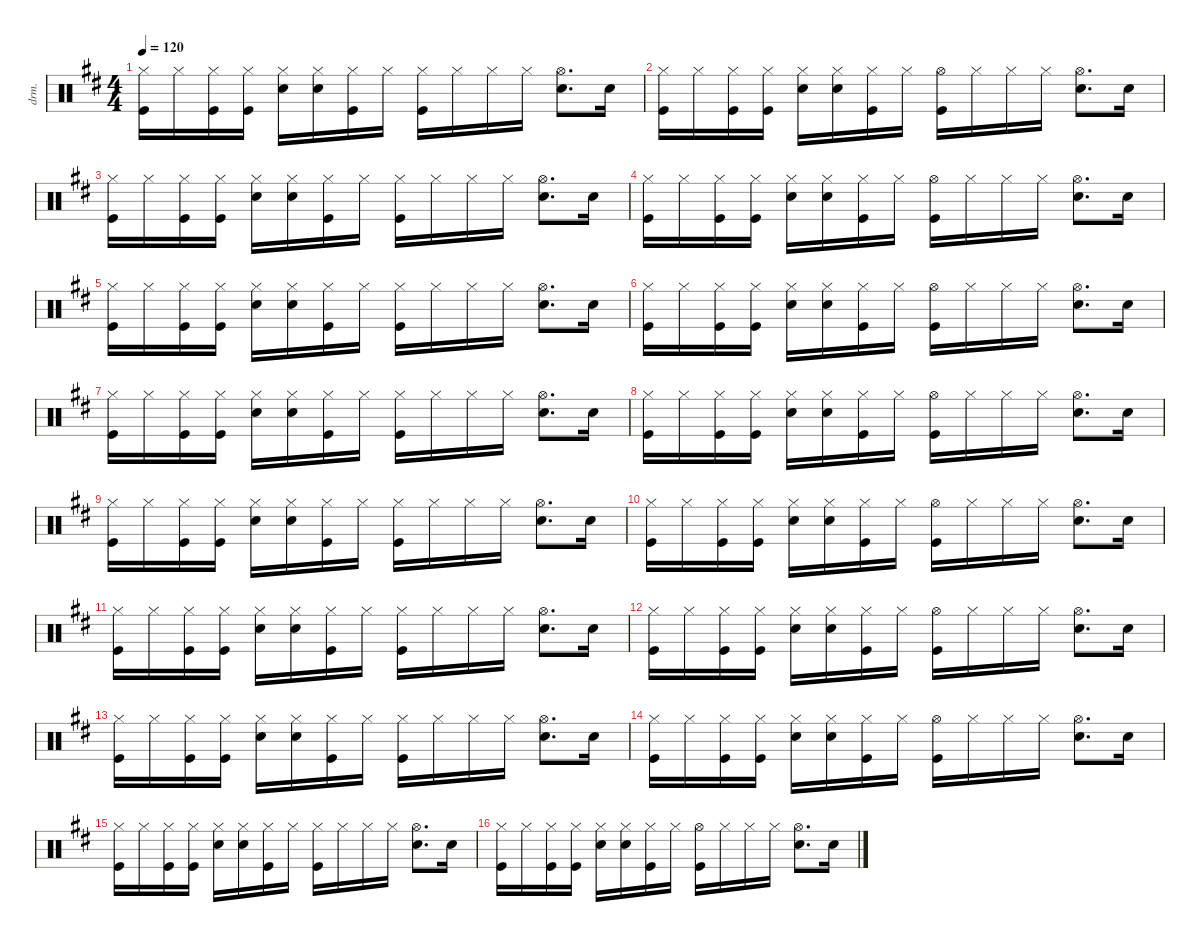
\defaultSystemsLayout 4
\hideDynamics
\bracketExtendMode nobrackets
\otherSystemsTrackNameOrientation horizontal
\track ("Drums" "drm.") {instrument percussion}
\staff {score}
\articulation defaults
\ts (4 4)
\tempo 120
\clef neutral
\ks d
("Hi-Hat (closed)"{acc forcenatural} "Kick (hit)"{acc forcenatural}).16{dy f} "Hi-Hat (closed)"{acc forcenatural}.16 ("Hi-Hat (closed)"{acc forcenatural} "Kick (hit)"{acc forcenatural}).16 ("Hi-Hat (closed)"{acc forcenatural} "Kick (hit)"{acc forcenatural}).16 ("Hi-Hat (closed)"{acc forcenatural} "Snare (hit) 2"{acc forcenatural}).16 ("Hi-Hat (closed)"{acc forcenatural} "Snare (hit) 2"{acc forcenatural}).16 ("Hi-Hat (closed)"{acc forcenatural} "Kick (hit)"{acc forcenatural}).16 "Hi-Hat (closed)"{acc forcenatural}.16 ("Hi-Hat (closed)"{acc forcenatural} "Kick (hit)"{acc forcenatural}).16 "Hi-Hat (closed)"{acc forcenatural}.16 "Hi-Hat (closed)"{acc forcenatural}.16 "Hi-Hat (closed)"{acc forcenatural}.16 ("Hi-Hat (open)"{acc forcenatural} "Snare (hit) 2"{acc forcenatural}).8{d} "Snare (hit) 2"{acc forcenatural}.16 |
("Hi-Hat (closed)"{acc forcenatural} "Kick (hit)"{acc forcenatural}).16 "Hi-Hat (closed)"{acc forcenatural}.16 ("Hi-Hat (closed)"{acc forcenatural} "Kick (hit)"{acc forcenatural}).16 ("Hi-Hat (closed)"{acc forcenatural} "Kick (hit)"{acc forcenatural}).16 ("Hi-Hat (closed)"{acc forcenatural} "Snare (hit) 2"{acc forcenatural}).16 ("Hi-Hat (closed)"{acc forcenatural} "Snare (hit) 2"{acc forcenatural}).16 ("Hi-Hat (closed)"{acc forcenatural} "Kick (hit)"{acc forcenatural}).16 "Hi-Hat (closed)"{acc forcenatural}.16 ("Hi-Hat (open)"{acc forcenatural} "Kick (hit)"{acc forcenatural}).16 "Hi-Hat (closed)"{acc forcenatural}.16 "Hi-Hat (closed)"{acc forcenatural}.16 "Hi-Hat (closed)"{acc forcenatural}.16 ("Hi-Hat (open)"{acc forcenatural} "Snare (hit) 2"{acc forcenatural}).8{d} "Snare (hit) 2"{acc forcenatural}.16 |
("Hi-Hat (closed)"{acc forcenatural} "Kick (hit)"{acc forcenatural}).16 "Hi-Hat (closed)"{acc forcenatural}.16 ("Hi-Hat (closed)"{acc forcenatural} "Kick (hit)"{acc forcenatural}).16 ("Hi-Hat (closed)"{acc forcenatural} "Kick (hit)"{acc forcenatural}).16 ("Hi-Hat (closed)"{acc forcenatural} "Snare (hit) 2"{acc forcenatural}).16 ("Hi-Hat (closed)"{acc forcenatural} "Snare (hit) 2"{acc forcenatural}).16 ("Hi-Hat (closed)"{acc forcenatural} "Kick (hit)"{acc forcenatural}).16 "Hi-Hat (closed)"{acc forcenatural}.16 ("Hi-Hat (closed)"{acc forcenatural} "Kick (hit)"{acc forcenatural}).16 "Hi-Hat (closed)"{acc forcenatural}.16 "Hi-Hat (closed)"{acc forcenatural}.16 "Hi-Hat (closed)"{acc forcenatural}.16 ("Hi-Hat (open)"{acc forcenatural} "Snare (hit) 2"{acc forcenatural}).8{d} "Snare (hit) 2"{acc forcenatural}.16 |
("Hi-Hat (closed)"{acc forcenatural} "Kick (hit)"{acc forcenatural}).16 "Hi-Hat (closed)"{acc forcenatural}.16 ("Hi-Hat (closed)"{acc forcenatural} "Kick (hit)"{acc forcenatural}).16 ("Hi-Hat (closed)"{acc forcenatural} "Kick (hit)"{acc forcenatural}).16 ("Hi-Hat (closed)"{acc forcenatural} "Snare (hit) 2"{acc forcenatural}).16 ("Hi-Hat (closed)"{acc forcenatural} "Snare (hit) 2"{acc forcenatural}).16 ("Hi-Hat (closed)"{acc forcenatural} "Kick (hit)"{acc forcenatural}).16 "Hi-Hat (closed)"{acc forcenatural}.16 ("Hi-Hat (open)"{acc forcenatural} "Kick (hit)"{acc forcenatural}).16 "Hi-Hat (closed)"{acc forcenatural}.16 "Hi-Hat (closed)"{acc forcenatural}.16 "Hi-Hat (closed)"{acc forcenatural}.16 ("Hi-Hat (open)"{acc forcenatural} "Snare (hit) 2"{acc forcenatural}).8{d} "Snare (hit) 2"{acc forcenatural}.16 |
("Hi-Hat (closed)"{acc forcenatural} "Kick (hit)"{acc forcenatural}).16 "Hi-Hat (closed)"{acc forcenatural}.16 ("Hi-Hat (closed)"{acc forcenatural} "Kick (hit)"{acc forcenatural}).16 ("Hi-Hat (closed)"{acc forcenatural} "Kick (hit)"{acc forcenatural}).16 ("Hi-Hat (closed)"{acc forcenatural} "Snare (hit) 2"{acc forcenatural}).16 ("Hi-Hat (closed)"{acc forcenatural} "Snare (hit) 2"{acc forcenatural}).16 ("Hi-Hat (closed)"{acc forcenatural} "Kick (hit)"{acc forcenatural}).16 "Hi-Hat (closed)"{acc forcenatural}.16 ("Hi-Hat (closed)"{acc forcenatural} "Kick (hit)"{acc forcenatural}).16 "Hi-Hat (closed)"{acc forcenatural}.16 "Hi-Hat (closed)"{acc forcenatural}.16 "Hi-Hat (closed)"{acc forcenatural}.16 ("Hi-Hat (open)"{acc forcenatural} "Snare (hit) 2"{acc forcenatural}).8{d} "Snare (hit) 2"{acc forcenatural}.16 |
("Hi-Hat (closed)"{acc forcenatural} "Kick (hit)"{acc forcenatural}).16 "Hi-Hat (closed)"{acc forcenatural}.16 ("Hi-Hat (closed)"{acc forcenatural} "Kick (hit)"{acc forcenatural}).16 ("Hi-Hat (closed)"{acc forcenatural} "Kick (hit)"{acc forcenatural}).16 ("Hi-Hat (closed)"{acc forcenatural} "Snare (hit) 2"{acc forcenatural}).16 ("Hi-Hat (closed)"{acc forcenatural} "Snare (hit) 2"{acc forcenatural}).16 ("Hi-Hat (closed)"{acc forcenatural} "Kick (hit)"{acc forcenatural}).16 "Hi-Hat (closed)"{acc forcenatural}.16 ("Hi-Hat (open)"{acc forcenatural} "Kick (hit)"{acc forcenatural}).16 "Hi-Hat (closed)"{acc forcenatural}.16 "Hi-Hat (closed)"{acc forcenatural}.16 "Hi-Hat (closed)"{acc forcenatural}.16 ("Hi-Hat (open)"{acc forcenatural} "Snare (hit) 2"{acc forcenatural}).8{d} "Snare (hit) 2"{acc forcenatural}.16 |
("Hi-Hat (closed)"{acc forcenatural} "Kick (hit)"{acc forcenatural}).16 "Hi-Hat (closed)"{acc forcenatural}.16 ("Hi-Hat (closed)"{acc forcenatural} "Kick (hit)"{acc forcenatural}).16 ("Hi-Hat (closed)"{acc forcenatural} "Kick (hit)"{acc forcenatural}).16 ("Hi-Hat (closed)"{acc forcenatural} "Snare (hit) 2"{acc forcenatural}).16 ("Hi-Hat (closed)"{acc forcenatural} "Snare (hit) 2"{acc forcenatural}).16 ("Hi-Hat (closed)"{acc forcenatural} "Kick (hit)"{acc forcenatural}).16 "Hi-Hat (closed)"{acc forcenatural}.16 ("Hi-Hat (closed)"{acc forcenatural} "Kick (hit)"{acc forcenatural}).16 "Hi-Hat (closed)"{acc forcenatural}.16 "Hi-Hat (closed)"{acc forcenatural}.16 "Hi-Hat (closed)"{acc forcenatural}.16 ("Hi-Hat (open)"{acc forcenatural} "Snare (hit) 2"{acc forcenatural}).8{d} "Snare (hit) 2"{acc forcenatural}.16 |
("Hi-Hat (closed)"{acc forcenatural} "Kick (hit)"{acc forcenatural}).16 "Hi-Hat (closed)"{acc forcenatural}.16 ("Hi-Hat (closed)"{acc forcenatural} "Kick (hit)"{acc forcenatural}).16 ("Hi-Hat (closed)"{acc forcenatural} "Kick (hit)"{acc forcenatural}).16 ("Hi-Hat (closed)"{acc forcenatural} "Snare (hit) 2"{acc forcenatural}).16 ("Hi-Hat (closed)"{acc forcenatural} "Snare (hit) 2"{acc forcenatural}).16 ("Hi-Hat (closed)"{acc forcenatural} "Kick (hit)"{acc forcenatural}).16 "Hi-Hat (closed)"{acc forcenatural}.16 ("Hi-Hat (open)"{acc forcenatural} "Kick (hit)"{acc forcenatural}).16 "Hi-Hat (closed)"{acc forcenatural}.16 "Hi-Hat (closed)"{acc forcenatural}.16 "Hi-Hat (closed)"{acc forcenatural}.16 ("Hi-Hat (open)"{acc forcenatural} "Snare (hit) 2"{acc forcenatural}).8{d} "Snare (hit) 2"{acc forcenatural}.16 |
("Hi-Hat (closed)"{acc forcenatural} "Kick (hit)"{acc forcenatural}).16 "Hi-Hat (closed)"{acc forcenatural}.16 ("Hi-Hat (closed)"{acc forcenatural} "Kick (hit)"{acc forcenatural}).16 ("Hi-Hat (closed)"{acc forcenatural} "Kick (hit)"{acc forcenatural}).16 ("Hi-Hat (closed)"{acc forcenatural} "Snare (hit) 2"{acc forcenatural}).16 ("Hi-Hat (closed)"{acc forcenatural} "Snare (hit) 2"{acc forcenatural}).16 ("Hi-Hat (closed)"{acc forcenatural} "Kick (hit)"{acc forcenatural}).16 "Hi-Hat (closed)"{acc forcenatural}.16 ("Hi-Hat (closed)"{acc forcenatural} "Kick (hit)"{acc forcenatural}).16 "Hi-Hat (closed)"{acc forcenatural}.16 "Hi-Hat (closed)"{acc forcenatural}.16 "Hi-Hat (closed)"{acc forcenatural}.16 ("Hi-Hat (open)"{acc forcenatural} "Snare (hit) 2"{acc forcenatural}).8{d} "Snare (hit) 2"{acc forcenatural}.16 |
("Hi-Hat (closed)"{acc forcenatural} "Kick (hit)"{acc forcenatural}).16 "Hi-Hat (closed)"{acc forcenatural}.16 ("Hi-Hat (closed)"{acc forcenatural} "Kick (hit)"{acc forcenatural}).16 ("Hi-Hat (closed)"{acc forcenatural} "Kick (hit)"{acc forcenatural}).16 ("Hi-Hat (closed)"{acc forcenatural} "Snare (hit) 2"{acc forcenatural}).16 ("Hi-Hat (closed)"{acc forcenatural} "Snare (hit) 2"{acc forcenatural}).16 ("Hi-Hat (closed)"{acc forcenatural} "Kick (hit)"{acc forcenatural}).16 "Hi-Hat (closed)"{acc forcenatural}.16 ("Hi-Hat (open)"{acc forcenatural} "Kick (hit)"{acc forcenatural}).16 "Hi-Hat (closed)"{acc forcenatural}.16 "Hi-Hat (closed)"{acc forcenatural}.16 "Hi-Hat (closed)"{acc forcenatural}.16 ("Hi-Hat (open)"{acc forcenatural} "Snare (hit) 2"{acc forcenatural}).8{d} "Snare (hit) 2"{acc forcenatural}.16 |
("Hi-Hat (closed)"{acc forcenatural} "Kick (hit)"{acc forcenatural}).16 "Hi-Hat (closed)"{acc forcenatural}.16 ("Hi-Hat (closed)"{acc forcenatural} "Kick (hit)"{acc forcenatural}).16 ("Hi-Hat (closed)"{acc forcenatural} "Kick (hit)"{acc forcenatural}).16 ("Hi-Hat (closed)"{acc forcenatural} "Snare (hit) 2"{acc forcenatural}).16 ("Hi-Hat (closed)"{acc forcenatural} "Snare (hit) 2"{acc forcenatural}).16 ("Hi-Hat (closed)"{acc forcenatural} "Kick (hit)"{acc forcenatural}).16 "Hi-Hat (closed)"{acc forcenatural}.16 ("Hi-Hat (closed)"{acc forcenatural} "Kick (hit)"{acc forcenatural}).16 "Hi-Hat (closed)"{acc forcenatural}.16 "Hi-Hat (closed)"{acc forcenatural}.16 "Hi-Hat (closed)"{acc forcenatural}.16 ("Hi-Hat (open)"{acc forcenatural} "Snare (hit) 2"{acc forcenatural}).8{d} "Snare (hit) 2"{acc forcenatural}.16 |
("Hi-Hat (closed)"{acc forcenatural} "Kick (hit)"{acc forcenatural}).16 "Hi-Hat (closed)"{acc forcenatural}.16 ("Hi-Hat (closed)"{acc forcenatural} "Kick (hit)"{acc forcenatural}).16 ("Hi-Hat (closed)"{acc forcenatural} "Kick (hit)"{acc forcenatural}).16 ("Hi-Hat (closed)"{acc forcenatural} "Snare (hit) 2"{acc forcenatural}).16 ("Hi-Hat (closed)"{acc forcenatural} "Snare (hit) 2"{acc forcenatural}).16 ("Hi-Hat (closed)"{acc forcenatural} "Kick (hit)"{acc forcenatural}).16 "Hi-Hat (closed)"{acc forcenatural}.16 ("Hi-Hat (open)"{acc forcenatural} "Kick (hit)"{acc forcenatural}).16 "Hi-Hat (closed)"{acc forcenatural}.16 "Hi-Hat (closed)"{acc forcenatural}.16 "Hi-Hat (closed)"{acc forcenatural}.16 ("Hi-Hat (open)"{acc forcenatural} "Snare (hit) 2"{acc forcenatural}).8{d} "Snare (hit) 2"{acc forcenatural}.16 |
("Hi-Hat (closed)"{acc forcenatural} "Kick (hit)"{acc forcenatural}).16 "Hi-Hat (closed)"{acc forcenatural}.16 ("Hi-Hat (closed)"{acc forcenatural} "Kick (hit)"{acc forcenatural}).16 ("Hi-Hat (closed)"{acc forcenatural} "Kick (hit)"{acc forcenatural}).16 ("Hi-Hat (closed)"{acc forcenatural} "Snare (hit) 2"{acc forcenatural}).16 ("Hi-Hat (closed)"{acc forcenatural} "Snare (hit) 2"{acc forcenatural}).16 ("Hi-Hat (closed)"{acc forcenatural} "Kick (hit)"{acc forcenatural}).16 "Hi-Hat (closed)"{acc forcenatural}.16 ("Hi-Hat (closed)"{acc forcenatural} "Kick (hit)"{acc forcenatural}).16 "Hi-Hat (closed)"{acc forcenatural}.16 "Hi-Hat (closed)"{acc forcenatural}.16 "Hi-Hat (closed)"{acc forcenatural}.16 ("Hi-Hat (open)"{acc forcenatural} "Snare (hit) 2"{acc forcenatural}).8{d} "Snare (hit) 2"{acc forcenatural}.16 |
("Hi-Hat (closed)"{acc forcenatural} "Kick (hit)"{acc forcenatural}).16 "Hi-Hat (closed)"{acc forcenatural}.16 ("Hi-Hat (closed)"{acc forcenatural} "Kick (hit)"{acc forcenatural}).16 ("Hi-Hat (closed)"{acc forcenatural} "Kick (hit)"{acc forcenatural}).16 ("Hi-Hat (closed)"{acc forcenatural} "Snare (hit) 2"{acc forcenatural}).16 ("Hi-Hat (closed)"{acc forcenatural} "Snare (hit) 2"{acc forcenatural}).16 ("Hi-Hat (closed)"{acc forcenatural} "Kick (hit)"{acc forcenatural}).16 "Hi-Hat (closed)"{acc forcenatural}.16 ("Hi-Hat (open)"{acc forcenatural} "Kick (hit)"{acc forcenatural}).16 "Hi-Hat (closed)"{acc forcenatural}.16 "Hi-Hat (closed)"{acc forcenatural}.16 "Hi-Hat (closed)"{acc forcenatural}.16 ("Hi-Hat (open)"{acc forcenatural} "Snare (hit) 2"{acc forcenatural}).8{d} "Snare (hit) 2"{acc forcenatural}.16 |
("Hi-Hat (closed)"{acc forcenatural} "Kick (hit)"{acc forcenatural}).16 "Hi-Hat (closed)"{acc forcenatural}.16 ("Hi-Hat (closed)"{acc forcenatural} "Kick (hit)"{acc forcenatural}).16 ("Hi-Hat (closed)"{acc forcenatural} "Kick (hit)"{acc forcenatural}).16 ("Hi-Hat (closed)"{acc forcenatural} "Snare (hit) 2"{acc forcenatural}).16 ("Hi-Hat (closed)"{acc forcenatural} "Snare (hit) 2"{acc forcenatural}).16 ("Hi-Hat (closed)"{acc forcenatural} "Kick (hit)"{acc forcenatural}).16 "Hi-Hat (closed)"{acc forcenatural}.16 ("Hi-Hat (closed)"{acc forcenatural} "Kick (hit)"{acc forcenatural}).16 "Hi-Hat (closed)"{acc forcenatural}.16 "Hi-Hat (closed)"{acc forcenatural}.16 "Hi-Hat (closed)"{acc forcenatural}.16 ("Hi-Hat (open)"{acc forcenatural} "Snare (hit) 2"{acc forcenatural}).8{d} "Snare (hit) 2"{acc forcenatural}.16 |
("Hi-Hat (closed)"{acc forcenatural} "Kick (hit)"{acc forcenatural}).16 "Hi-Hat (closed)"{acc forcenatural}.16 ("Hi-Hat (closed)"{acc forcenatural} "Kick (hit)"{acc forcenatural}).16 ("Hi-Hat (closed)"{acc forcenatural} "Kick (hit)"{acc forcenatural}).16 ("Hi-Hat (closed)"{acc forcenatural} "Snare (hit) 2"{acc forcenatural}).16 ("Hi-Hat (closed)"{acc forcenatural} "Snare (hit) 2"{acc forcenatural}).16 ("Hi-Hat (closed)"{acc forcenatural} "Kick (hit)"{acc forcenatural}).16 "Hi-Hat (closed)"{acc forcenatural}.16 ("Hi-Hat (open)"{acc forcenatural} "Kick (hit)"{acc forcenatural}).16 "Hi-Hat (closed)"{acc forcenatural}.16 "Hi-Hat (closed)"{acc forcenatural}.16 "Hi-Hat (closed)"{acc forcenatural}.16 ("Hi-Hat (open)"{acc forcenatural} "Snare (hit) 2"{acc forcenatural}).8{d} "Snare (hit) 2"{acc forcenatural}.16
